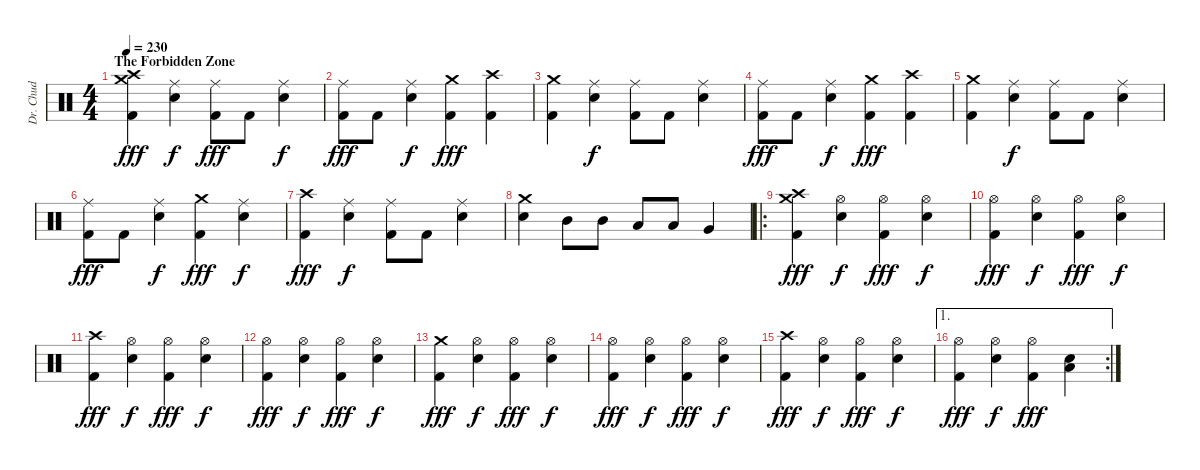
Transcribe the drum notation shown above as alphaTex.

\track ("Dr. Chud" "Dr. Chud") {instrument percussion}
\staff {score}
\articulation defaults
\ts (4 4)
\section ("" "The Forbidden Zone")
\tempo 230
\clef neutral
\ks c
("Crash high (hit)" "Crash medium (hit)" "Kick (hit) 2").4{dy fff} ("Ride (middle)" "Snare (hit) 2").4{dy f} ("Ride (middle)" "Kick (hit) 2").8{dy fff} "Kick (hit) 2".8 ("Ride (middle)" "Snare (hit) 2").4{dy f} |
("Ride (middle)" "Kick (hit) 2").8{dy fff} "Kick (hit) 2".8 ("Ride (middle)" "Snare (hit) 2").4{dy f} ("Crash medium (hit)" "Kick (hit) 2").4{dy fff} ("Crash high (hit)" "Kick (hit) 2").4 |
("Crash medium (hit)" "Kick (hit) 2").4 ("Ride (middle)" "Snare (hit) 2").4{dy f} ("Ride (middle)" "Kick (hit) 2").8 "Kick (hit) 2".8 ("Ride (middle)" "Snare (hit) 2").4 |
("Ride (middle)" "Kick (hit) 2").8{dy fff} "Kick (hit) 2".8 ("Ride (middle)" "Snare (hit) 2").4{dy f} ("Crash medium (hit)" "Kick (hit) 2").4{dy fff} ("Crash high (hit)" "Kick (hit) 2").4 |
("Crash medium (hit)" "Kick (hit) 2").4 ("Ride (middle)" "Snare (hit) 2").4{dy f} ("Ride (middle)" "Kick (hit) 2").8 "Kick (hit) 2".8 ("Ride (middle)" "Snare (hit) 2").4 |
("Ride (middle)" "Kick (hit) 2").8{dy fff} "Kick (hit) 2".8 ("Ride (middle)" "Snare (hit) 2").4{dy f} ("Crash medium (hit)" "Kick (hit) 2").4{dy fff} ("Ride (middle)" "Snare (hit) 2").4{dy f} |
("Crash high (hit)" "Kick (hit) 2").4{dy fff} ("Ride (middle)" "Snare (hit) 2").4{dy f} ("Ride (middle)" "Kick (hit) 2").8 "Kick (hit) 2".8 ("Ride (middle)" "Snare (hit) 2").4 |
("Crash medium (hit)" "Snare (hit) 2").4 "Mid Tom (hit)".8 "Mid Tom (hit)".8 "Low Tom (hit)".8 "Low Tom (hit)".8 "Very Low Tom (hit)".4 |
\ro
("Crash high (hit)" "Crash medium (hit)" "Kick (hit) 2").4{dy fff} ("Hi-Hat (open)" "Snare (hit) 2").4{dy f} ("Hi-Hat (open)" "Kick (hit) 2").4{dy fff} ("Hi-Hat (open)" "Snare (hit) 2").4{dy f} |
("Hi-Hat (open)" "Kick (hit) 2").4{dy fff} ("Hi-Hat (open)" "Snare (hit) 2").4{dy f} ("Hi-Hat (open)" "Kick (hit) 2").4{dy fff} ("Hi-Hat (open)" "Snare (hit) 2").4{dy f} |
("Crash high (hit)" "Kick (hit) 2").4{dy fff} ("Hi-Hat (open)" "Snare (hit) 2").4{dy f} ("Hi-Hat (open)" "Kick (hit) 2").4{dy fff} ("Hi-Hat (open)" "Snare (hit) 2").4{dy f} |
("Hi-Hat (open)" "Kick (hit) 2").4{dy fff} ("Hi-Hat (open)" "Snare (hit) 2").4{dy f} ("Hi-Hat (open)" "Kick (hit) 2").4{dy fff} ("Hi-Hat (open)" "Snare (hit) 2").4{dy f} |
("Crash medium (hit)" "Kick (hit) 2").4{dy fff} ("Hi-Hat (open)" "Snare (hit) 2").4{dy f} ("Hi-Hat (open)" "Kick (hit) 2").4{dy fff} ("Hi-Hat (open)" "Snare (hit) 2").4{dy f} |
("Hi-Hat (open)" "Kick (hit) 2").4{dy fff} ("Hi-Hat (open)" "Snare (hit) 2").4{dy f} ("Hi-Hat (open)" "Kick (hit) 2").4{dy fff} ("Hi-Hat (open)" "Snare (hit) 2").4{dy f} |
("Crash high (hit)" "Kick (hit) 2").4{dy fff} ("Hi-Hat (open)" "Snare (hit) 2").4{dy f} ("Hi-Hat (open)" "Kick (hit) 2").4{dy fff} ("Hi-Hat (open)" "Snare (hit) 2").4{dy f} |
\ae 1
\rc 2
("Hi-Hat (open)" "Kick (hit) 2").4{dy fff} ("Hi-Hat (open)" "Snare (hit) 2").4{dy f} ("Hi-Hat (open)" "Kick (hit) 2").4{dy fff} ("Low Tom (hit)" "Snare (hit) 2").4
